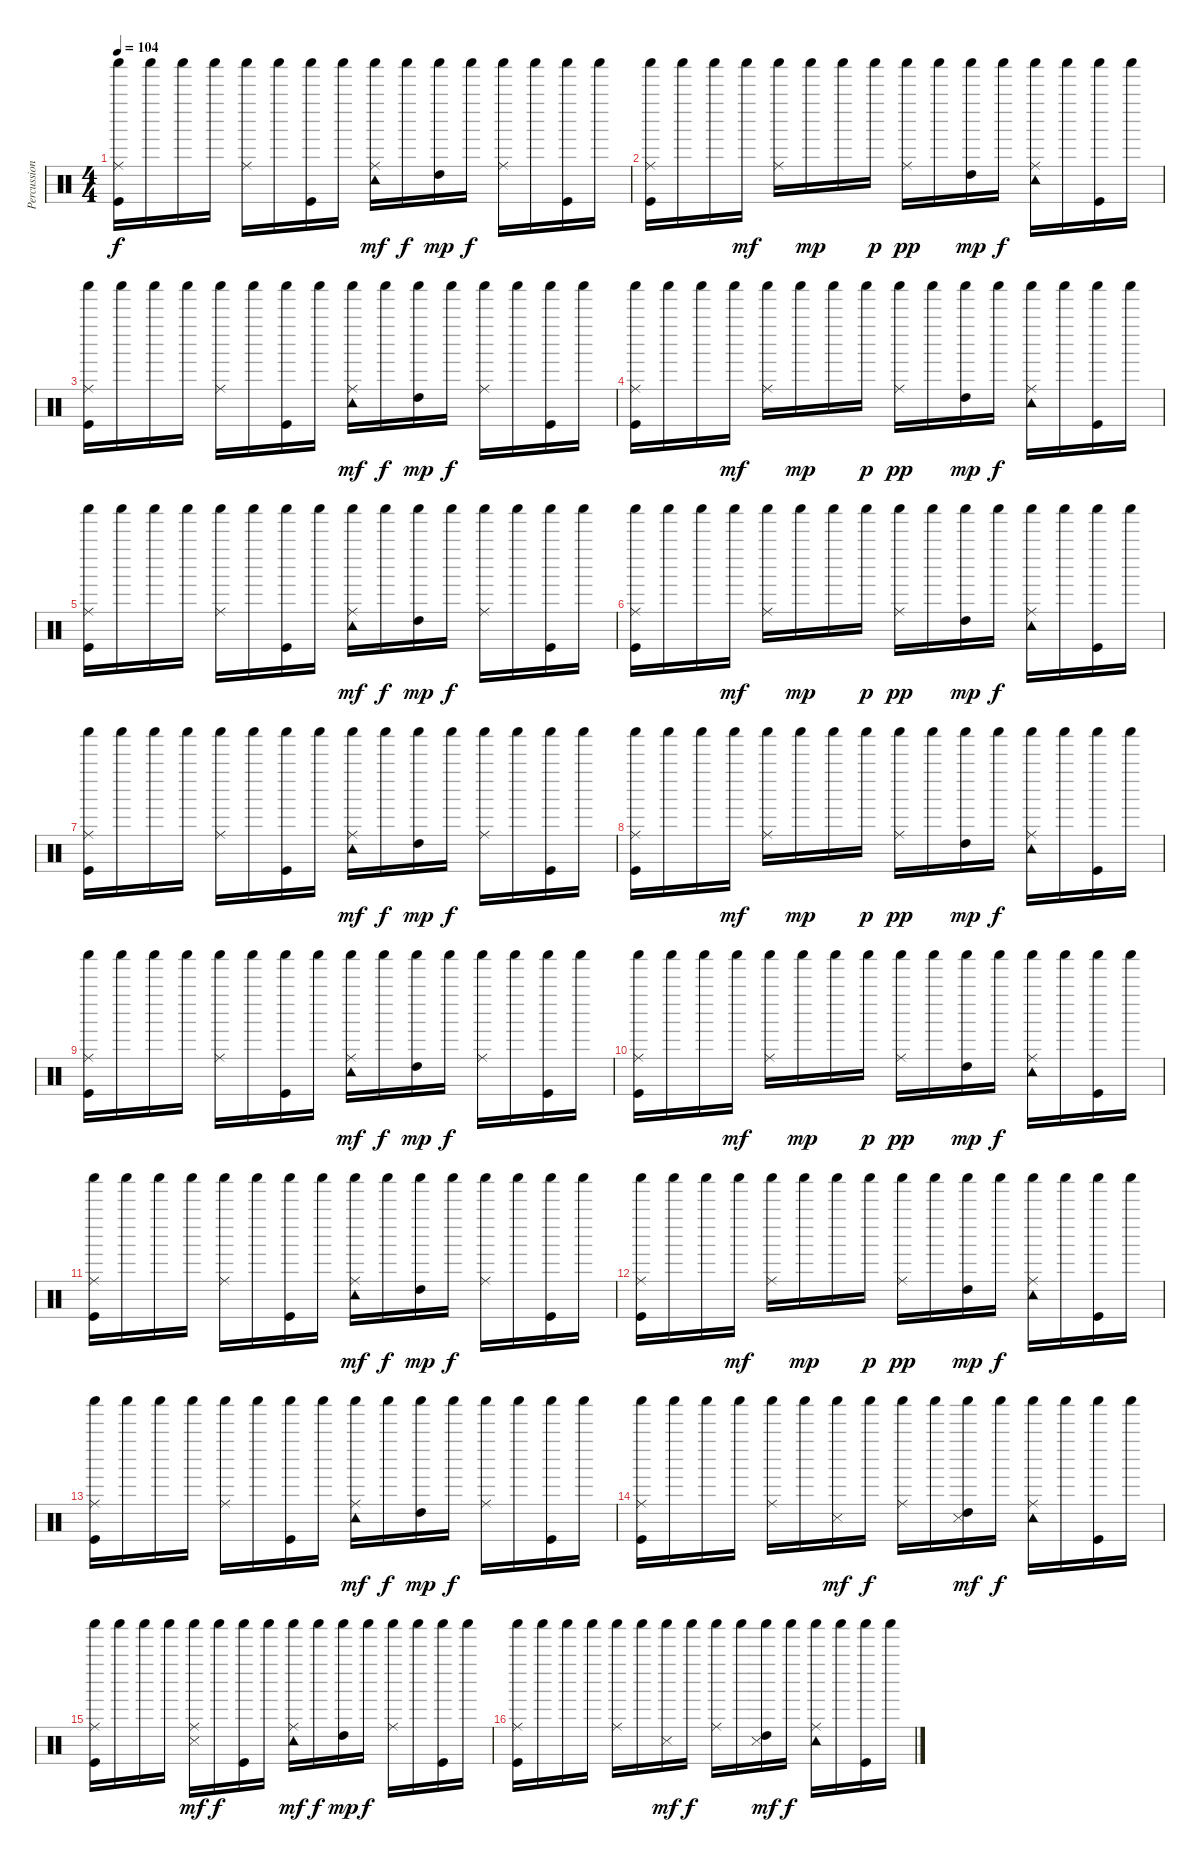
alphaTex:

\track ("Percussioni" "Percussion") {instrument percussion}
\staff {score}
\articulation defaults
\ts (4 4)
\tempo 104
\clef neutral
\ks c
("Ride (middle)" "Shaker (hit)" "Kick (hit)").16{dy f} "Shaker (hit)".16 "Shaker (hit)".16 "Shaker (hit)".16 ("Ride (middle)" "Shaker (hit)").16 "Shaker (hit)".16 ("Shaker (hit)" "Kick (hit)").16 "Shaker (hit)".16 ("Ride (middle)" "Shaker (hit)" "Tambourine (hit)").16{dy mf} "Shaker (hit)".16{dy f} ("High Tom (hit)" "Shaker (hit)").16{dy mp} "Shaker (hit)".16{dy f} ("Ride (middle)" "Shaker (hit)").16 "Shaker (hit)".16 ("Shaker (hit)" "Kick (hit)").16 "Shaker (hit)".16 |
("Ride (middle)" "Shaker (hit)" "Kick (hit)").16 "Shaker (hit)".16 "Shaker (hit)".16 "Shaker (hit)".16{dy mf} ("Ride (middle)" "Shaker (hit)").16 "Shaker (hit)".16{dy mp} "Shaker (hit)".16 "Shaker (hit)".16{dy p} ("Ride (middle)" "Shaker (hit)").16{dy pp} "Shaker (hit)".16 ("High Tom (hit)" "Shaker (hit)").16{dy mp} "Shaker (hit)".16{dy f} ("Ride (middle)" "Shaker (hit)" "Tambourine (hit)").16 "Shaker (hit)".16 ("Shaker (hit)" "Kick (hit)").16 "Shaker (hit)".16 |
("Ride (middle)" "Shaker (hit)" "Kick (hit)").16 "Shaker (hit)".16 "Shaker (hit)".16 "Shaker (hit)".16 ("Ride (middle)" "Shaker (hit)").16 "Shaker (hit)".16 ("Shaker (hit)" "Kick (hit)").16 "Shaker (hit)".16 ("Ride (middle)" "Shaker (hit)" "Tambourine (hit)").16{dy mf} "Shaker (hit)".16{dy f} ("High Tom (hit)" "Shaker (hit)").16{dy mp} "Shaker (hit)".16{dy f} ("Ride (middle)" "Shaker (hit)").16 "Shaker (hit)".16 ("Shaker (hit)" "Kick (hit)").16 "Shaker (hit)".16 |
("Ride (middle)" "Shaker (hit)" "Kick (hit)").16 "Shaker (hit)".16 "Shaker (hit)".16 "Shaker (hit)".16{dy mf} ("Ride (middle)" "Shaker (hit)").16 "Shaker (hit)".16{dy mp} "Shaker (hit)".16 "Shaker (hit)".16{dy p} ("Ride (middle)" "Shaker (hit)").16{dy pp} "Shaker (hit)".16 ("High Tom (hit)" "Shaker (hit)").16{dy mp} "Shaker (hit)".16{dy f} ("Ride (middle)" "Shaker (hit)" "Tambourine (hit)").16 "Shaker (hit)".16 ("Shaker (hit)" "Kick (hit)").16 "Shaker (hit)".16 |
("Ride (middle)" "Shaker (hit)" "Kick (hit)").16 "Shaker (hit)".16 "Shaker (hit)".16 "Shaker (hit)".16 ("Ride (middle)" "Shaker (hit)").16 "Shaker (hit)".16 ("Shaker (hit)" "Kick (hit)").16 "Shaker (hit)".16 ("Ride (middle)" "Shaker (hit)" "Tambourine (hit)").16{dy mf} "Shaker (hit)".16{dy f} ("High Tom (hit)" "Shaker (hit)").16{dy mp} "Shaker (hit)".16{dy f} ("Ride (middle)" "Shaker (hit)").16 "Shaker (hit)".16 ("Shaker (hit)" "Kick (hit)").16 "Shaker (hit)".16 |
("Ride (middle)" "Shaker (hit)" "Kick (hit)").16 "Shaker (hit)".16 "Shaker (hit)".16 "Shaker (hit)".16{dy mf} ("Ride (middle)" "Shaker (hit)").16 "Shaker (hit)".16{dy mp} "Shaker (hit)".16 "Shaker (hit)".16{dy p} ("Ride (middle)" "Shaker (hit)").16{dy pp} "Shaker (hit)".16 ("High Tom (hit)" "Shaker (hit)").16{dy mp} "Shaker (hit)".16{dy f} ("Ride (middle)" "Shaker (hit)" "Tambourine (hit)").16 "Shaker (hit)".16 ("Shaker (hit)" "Kick (hit)").16 "Shaker (hit)".16 |
("Ride (middle)" "Shaker (hit)" "Kick (hit)").16 "Shaker (hit)".16 "Shaker (hit)".16 "Shaker (hit)".16 ("Ride (middle)" "Shaker (hit)").16 "Shaker (hit)".16 ("Shaker (hit)" "Kick (hit)").16 "Shaker (hit)".16 ("Ride (middle)" "Shaker (hit)" "Tambourine (hit)").16{dy mf} "Shaker (hit)".16{dy f} ("High Tom (hit)" "Shaker (hit)").16{dy mp} "Shaker (hit)".16{dy f} ("Ride (middle)" "Shaker (hit)").16 "Shaker (hit)".16 ("Shaker (hit)" "Kick (hit)").16 "Shaker (hit)".16 |
("Ride (middle)" "Shaker (hit)" "Kick (hit)").16 "Shaker (hit)".16 "Shaker (hit)".16 "Shaker (hit)".16{dy mf} ("Ride (middle)" "Shaker (hit)").16 "Shaker (hit)".16{dy mp} "Shaker (hit)".16 "Shaker (hit)".16{dy p} ("Ride (middle)" "Shaker (hit)").16{dy pp} "Shaker (hit)".16 ("High Tom (hit)" "Shaker (hit)").16{dy mp} "Shaker (hit)".16{dy f} ("Ride (middle)" "Shaker (hit)" "Tambourine (hit)").16 "Shaker (hit)".16 ("Shaker (hit)" "Kick (hit)").16 "Shaker (hit)".16 |
("Ride (middle)" "Shaker (hit)" "Kick (hit)").16 "Shaker (hit)".16 "Shaker (hit)".16 "Shaker (hit)".16 ("Ride (middle)" "Shaker (hit)").16 "Shaker (hit)".16 ("Shaker (hit)" "Kick (hit)").16 "Shaker (hit)".16 ("Ride (middle)" "Shaker (hit)" "Tambourine (hit)").16{dy mf} "Shaker (hit)".16{dy f} ("High Tom (hit)" "Shaker (hit)").16{dy mp} "Shaker (hit)".16{dy f} ("Ride (middle)" "Shaker (hit)").16 "Shaker (hit)".16 ("Shaker (hit)" "Kick (hit)").16 "Shaker (hit)".16 |
("Ride (middle)" "Shaker (hit)" "Kick (hit)").16 "Shaker (hit)".16 "Shaker (hit)".16 "Shaker (hit)".16{dy mf} ("Ride (middle)" "Shaker (hit)").16 "Shaker (hit)".16{dy mp} "Shaker (hit)".16 "Shaker (hit)".16{dy p} ("Ride (middle)" "Shaker (hit)").16{dy pp} "Shaker (hit)".16 ("High Tom (hit)" "Shaker (hit)").16{dy mp} "Shaker (hit)".16{dy f} ("Ride (middle)" "Shaker (hit)" "Tambourine (hit)").16 "Shaker (hit)".16 ("Shaker (hit)" "Kick (hit)").16 "Shaker (hit)".16 |
("Ride (middle)" "Shaker (hit)" "Kick (hit)").16 "Shaker (hit)".16 "Shaker (hit)".16 "Shaker (hit)".16 ("Ride (middle)" "Shaker (hit)").16 "Shaker (hit)".16 ("Shaker (hit)" "Kick (hit)").16 "Shaker (hit)".16 ("Ride (middle)" "Shaker (hit)" "Tambourine (hit)").16{dy mf} "Shaker (hit)".16{dy f} ("High Tom (hit)" "Shaker (hit)").16{dy mp} "Shaker (hit)".16{dy f} ("Ride (middle)" "Shaker (hit)").16 "Shaker (hit)".16 ("Shaker (hit)" "Kick (hit)").16 "Shaker (hit)".16 |
("Ride (middle)" "Shaker (hit)" "Kick (hit)").16 "Shaker (hit)".16 "Shaker (hit)".16 "Shaker (hit)".16{dy mf} ("Ride (middle)" "Shaker (hit)").16 "Shaker (hit)".16{dy mp} "Shaker (hit)".16 "Shaker (hit)".16{dy p} ("Ride (middle)" "Shaker (hit)").16{dy pp} "Shaker (hit)".16 ("High Tom (hit)" "Shaker (hit)").16{dy mp} "Shaker (hit)".16{dy f} ("Ride (middle)" "Shaker (hit)" "Tambourine (hit)").16 "Shaker (hit)".16 ("Shaker (hit)" "Kick (hit)").16 "Shaker (hit)".16 |
("Ride (middle)" "Shaker (hit)" "Kick (hit)").16 "Shaker (hit)".16 "Shaker (hit)".16 "Shaker (hit)".16 ("Ride (middle)" "Shaker (hit)").16 "Shaker (hit)".16 ("Shaker (hit)" "Kick (hit)").16 "Shaker (hit)".16 ("Ride (middle)" "Shaker (hit)" "Tambourine (hit)").16{dy mf} "Shaker (hit)".16{dy f} ("High Tom (hit)" "Shaker (hit)").16{dy mp} "Shaker (hit)".16{dy f} ("Ride (middle)" "Shaker (hit)").16 "Shaker (hit)".16 ("Shaker (hit)" "Kick (hit)").16 "Shaker (hit)".16 |
("Ride (middle)" "Shaker (hit)" "Kick (hit)").16 "Shaker (hit)".16 "Shaker (hit)".16 "Shaker (hit)".16 ("Ride (middle)" "Shaker (hit)").16 "Shaker (hit)".16 ("Shaker (hit)" "Snare (side stick) 3").16{dy mf} "Shaker (hit)".16{dy f} ("Ride (middle)" "Shaker (hit)").16 "Shaker (hit)".16 ("High Tom (hit)" "Shaker (hit)" "Snare (side stick) 3").16{dy mf} "Shaker (hit)".16{dy f} ("Ride (middle)" "Shaker (hit)" "Tambourine (hit)").16 "Shaker (hit)".16 ("Shaker (hit)" "Kick (hit)").16 "Shaker (hit)".16 |
("Ride (middle)" "Shaker (hit)" "Kick (hit)").16 "Shaker (hit)".16 "Shaker (hit)".16 "Shaker (hit)".16 ("Ride (middle)" "Shaker (hit)" "Snare (side stick) 3").16{dy mf} "Shaker (hit)".16{dy f} ("Shaker (hit)" "Kick (hit)").16 "Shaker (hit)".16 ("Ride (middle)" "Shaker (hit)" "Tambourine (hit)").16{dy mf} "Shaker (hit)".16{dy f} ("High Tom (hit)" "Shaker (hit)").16{dy mp} "Shaker (hit)".16{dy f} ("Ride (middle)" "Shaker (hit)").16 "Shaker (hit)".16 ("Shaker (hit)" "Kick (hit)").16 "Shaker (hit)".16 |
("Ride (middle)" "Shaker (hit)" "Kick (hit)").16 "Shaker (hit)".16 "Shaker (hit)".16 "Shaker (hit)".16 ("Ride (middle)" "Shaker (hit)").16 "Shaker (hit)".16 ("Shaker (hit)" "Snare (side stick) 3").16{dy mf} "Shaker (hit)".16{dy f} ("Ride (middle)" "Shaker (hit)").16 "Shaker (hit)".16 ("High Tom (hit)" "Shaker (hit)" "Snare (side stick) 3").16{dy mf} "Shaker (hit)".16{dy f} ("Ride (middle)" "Shaker (hit)" "Tambourine (hit)").16 "Shaker (hit)".16 ("Shaker (hit)" "Kick (hit)").16 "Shaker (hit)".16
